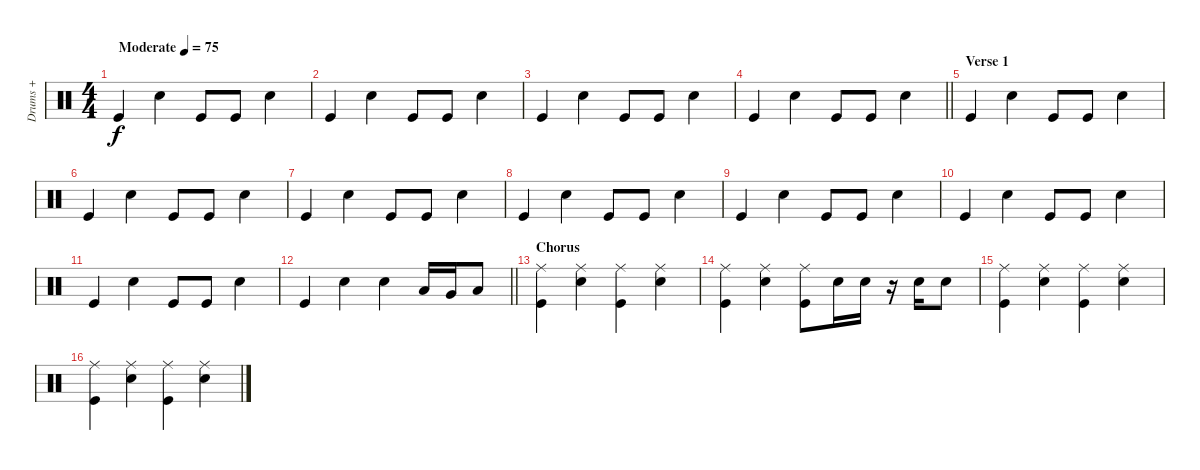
\track ("Drums +" "Drums +") {instrument percussion}
\staff {score}
\articulation defaults
\ts (4 4)
\tempo (75 "Moderate")
\clef neutral
\ks c "Kick (hit)".4{dy f} "Snare (hit) 2".4 "Kick (hit)".8 "Kick (hit)".8 "Snare (hit) 2".4
|
"Kick (hit)".4 "Snare (hit) 2".4 "Kick (hit)".8 "Kick (hit)".8 "Snare (hit) 2".4 |
"Kick (hit)".4 "Snare (hit) 2".4 "Kick (hit)".8 "Kick (hit)".8 "Snare (hit) 2".4 |
\barLineRight lightlight "Kick (hit)".4 "Snare (hit) 2".4 "Kick (hit)".8 "Kick (hit)".8 "Snare (hit) 2".4
|
\section ("" "Verse 1")
"Kick (hit)".4 "Snare (hit) 2".4 "Kick (hit)".8 "Kick (hit)".8 "Snare (hit) 2".4 |
"Kick (hit)".4 "Snare (hit) 2".4 "Kick (hit)".8 "Kick (hit)".8 "Snare (hit) 2".4 |
"Kick (hit)".4 "Snare (hit) 2".4 "Kick (hit)".8 "Kick (hit)".8 "Snare (hit) 2".4 |
"Kick (hit)".4 "Snare (hit) 2".4 "Kick (hit)".8 "Kick (hit)".8 "Snare (hit) 2".4 |
"Kick (hit)".4 "Snare (hit) 2".4 "Kick (hit)".8 "Kick (hit)".8 "Snare (hit) 2".4 |
"Kick (hit)".4 "Snare (hit) 2".4 "Kick (hit)".8 "Kick (hit)".8 "Snare (hit) 2".4 |
"Kick (hit)".4 "Snare (hit) 2".4 "Kick (hit)".8 "Kick (hit)".8 "Snare (hit) 2".4 |
\barLineRight lightlight "Kick (hit)".4 "Snare (hit) 2".4 "Snare (hit) 2".4 "Low Tom (hit)".16 "Very Low Tom (hit)".16 "Low Floor Tom (hit)".8
|
\section ("" "Chorus")
("Ride (middle)" "Kick (hit)").4 ("Ride (middle)" "Snare (hit) 2").4 ("Ride (middle)" "Kick (hit)").4 ("Ride (middle)" "Snare (hit) 2").4 |
("Ride (middle)" "Kick (hit)").4 ("Ride (middle)" "Snare (hit) 2").4 ("Ride (middle)" "Kick (hit)").8 "Snare (hit) 2".16 "Snare (hit) 2".16 r.16 "Snare (hit) 2".16 "Snare (hit) 2".8 |
("Ride (middle)" "Kick (hit)").4 ("Ride (middle)" "Snare (hit) 2").4 ("Ride (middle)" "Kick (hit)").4 ("Ride (middle)" "Snare (hit) 2").4 |
("Ride (middle)" "Kick (hit)").4 ("Ride (middle)" "Snare (hit) 2").4 ("Ride (middle)" "Kick (hit)").4 ("Ride (middle)" "Snare (hit) 2").4
